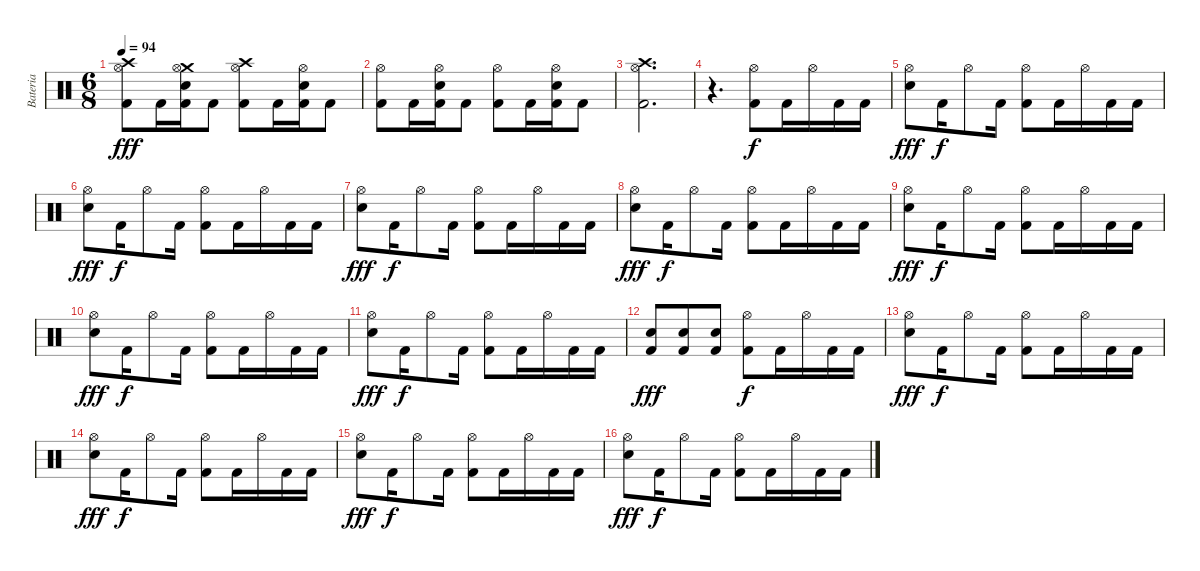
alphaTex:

\track ("Bateria" "Bateria") {instrument percussion}
\staff {score}
\articulation defaults
\ts (6 8)
\tempo 94
\clef neutral
\ks c
("Crash high (hit)" "Hi-Hat (open)" "Kick (hit) 2").8{dy fff} "Kick (hit) 2".16 ("Crash medium (hit)" "Hi-Hat (open)" "Electric Snare (hit)" "Kick (hit) 2").16 "Kick (hit) 2".8 ("Crash high (hit)" "Hi-Hat (open)" "Kick (hit) 2").8 "Kick (hit) 2".16 ("Hi-Hat (open)" "Electric Snare (hit)" "Kick (hit) 2").16 "Kick (hit) 2".8 |
("Hi-Hat (open)" "Kick (hit) 2").8 "Kick (hit) 2".16 ("Hi-Hat (open)" "Electric Snare (hit)" "Kick (hit) 2").16 "Kick (hit) 2".8 ("Hi-Hat (open)" "Kick (hit) 2").8 "Kick (hit) 2".16 ("Hi-Hat (open)" "Electric Snare (hit)" "Kick (hit) 2").16 "Kick (hit) 2".8 |
("Crash high (hit)" "Hi-Hat (open)" "Kick (hit) 2").2{d} |
r.4{d} ("Hi-Hat (open)" "Kick (hit) 2").8{dy f} "Kick (hit) 2".16 "Hi-Hat (open)".16 "Kick (hit) 2".16 "Kick (hit) 2".16 |
("Hi-Hat (open)" "Electric Snare (hit)").8{dy fff} "Kick (hit) 2".16{dy f} "Hi-Hat (open)".8 "Kick (hit) 2".16 ("Hi-Hat (open)" "Kick (hit) 2").8 "Kick (hit) 2".16 "Hi-Hat (open)".16 "Kick (hit) 2".16 "Kick (hit) 2".16 |
("Hi-Hat (open)" "Electric Snare (hit)").8{dy fff} "Kick (hit) 2".16{dy f} "Hi-Hat (open)".8 "Kick (hit) 2".16 ("Hi-Hat (open)" "Kick (hit) 2").8 "Kick (hit) 2".16 "Hi-Hat (open)".16 "Kick (hit) 2".16 "Kick (hit) 2".16 |
("Hi-Hat (open)" "Electric Snare (hit)").8{dy fff} "Kick (hit) 2".16{dy f} "Hi-Hat (open)".8 "Kick (hit) 2".16 ("Hi-Hat (open)" "Kick (hit) 2").8 "Kick (hit) 2".16 "Hi-Hat (open)".16 "Kick (hit) 2".16 "Kick (hit) 2".16 |
("Hi-Hat (open)" "Electric Snare (hit)").8{dy fff} "Kick (hit) 2".16{dy f} "Hi-Hat (open)".8 "Kick (hit) 2".16 ("Hi-Hat (open)" "Kick (hit) 2").8 "Kick (hit) 2".16 "Hi-Hat (open)".16 "Kick (hit) 2".16 "Kick (hit) 2".16 |
("Hi-Hat (open)" "Electric Snare (hit)").8{dy fff} "Kick (hit) 2".16{dy f} "Hi-Hat (open)".8 "Kick (hit) 2".16 ("Hi-Hat (open)" "Kick (hit) 2").8 "Kick (hit) 2".16 "Hi-Hat (open)".16 "Kick (hit) 2".16 "Kick (hit) 2".16 |
("Hi-Hat (open)" "Electric Snare (hit)").8{dy fff} "Kick (hit) 2".16{dy f} "Hi-Hat (open)".8 "Kick (hit) 2".16 ("Hi-Hat (open)" "Kick (hit) 2").8 "Kick (hit) 2".16 "Hi-Hat (open)".16 "Kick (hit) 2".16 "Kick (hit) 2".16 |
("Hi-Hat (open)" "Electric Snare (hit)").8{dy fff} "Kick (hit) 2".16{dy f} "Hi-Hat (open)".8 "Kick (hit) 2".16 ("Hi-Hat (open)" "Kick (hit) 2").8 "Kick (hit) 2".16 "Hi-Hat (open)".16 "Kick (hit) 2".16 "Kick (hit) 2".16 |
("Electric Snare (hit)" "Kick (hit) 2").8{dy fff} ("Electric Snare (hit)" "Kick (hit) 2").8 ("Electric Snare (hit)" "Kick (hit) 2").8 ("Hi-Hat (open)" "Kick (hit) 2").8{dy f} "Kick (hit) 2".16 "Hi-Hat (open)".16 "Kick (hit) 2".16 "Kick (hit) 2".16 |
("Hi-Hat (open)" "Electric Snare (hit)").8{dy fff} "Kick (hit) 2".16{dy f} "Hi-Hat (open)".8 "Kick (hit) 2".16 ("Hi-Hat (open)" "Kick (hit) 2").8 "Kick (hit) 2".16 "Hi-Hat (open)".16 "Kick (hit) 2".16 "Kick (hit) 2".16 |
("Hi-Hat (open)" "Electric Snare (hit)").8{dy fff} "Kick (hit) 2".16{dy f} "Hi-Hat (open)".8 "Kick (hit) 2".16 ("Hi-Hat (open)" "Kick (hit) 2").8 "Kick (hit) 2".16 "Hi-Hat (open)".16 "Kick (hit) 2".16 "Kick (hit) 2".16 |
("Hi-Hat (open)" "Electric Snare (hit)").8{dy fff} "Kick (hit) 2".16{dy f} "Hi-Hat (open)".8 "Kick (hit) 2".16 ("Hi-Hat (open)" "Kick (hit) 2").8 "Kick (hit) 2".16 "Hi-Hat (open)".16 "Kick (hit) 2".16 "Kick (hit) 2".16 |
("Hi-Hat (open)" "Electric Snare (hit)").8{dy fff} "Kick (hit) 2".16{dy f} "Hi-Hat (open)".8 "Kick (hit) 2".16 ("Hi-Hat (open)" "Kick (hit) 2").8 "Kick (hit) 2".16 "Hi-Hat (open)".16 "Kick (hit) 2".16 "Kick (hit) 2".16
